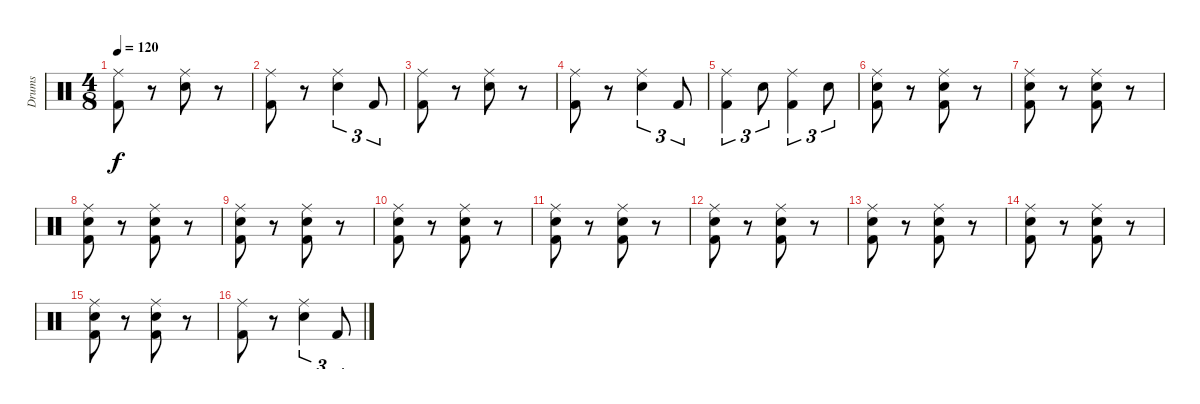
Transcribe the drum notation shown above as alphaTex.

\track ("Drums" "Drums") {instrument percussion}
\staff {score}
\articulation defaults
\ts (4 8)
\tempo 120
\clef neutral
\ks c
("Ride (middle)" "Kick (hit) 2").8{dy f} r.8 ("Ride (middle)" "Electric Snare (hit)").8 r.8 |
("Ride (middle)" "Kick (hit) 2").8 r.8 ("Ride (middle)" "Electric Snare (hit)").4{tu (3 2)} "Kick (hit) 2".8{tu (3 2)} |
("Ride (middle)" "Kick (hit) 2").8 r.8 ("Ride (middle)" "Electric Snare (hit)").8 r.8 |
("Ride (middle)" "Kick (hit) 2").8 r.8 ("Ride (middle)" "Electric Snare (hit)").4{tu (3 2)} "Kick (hit) 2".8{tu (3 2)} |
("Ride (middle)" "Kick (hit) 2").4{tu (3 2)} "Electric Snare (hit)".8{tu (3 2)} ("Ride (middle)" "Kick (hit) 2").4{tu (3 2)} "Electric Snare (hit)".8{tu (3 2)} |
("Ride (middle)" "Electric Snare (hit)" "Kick (hit) 2").8 r.8 ("Ride (middle)" "Electric Snare (hit)" "Kick (hit) 2").8 r.8 |
("Ride (middle)" "Electric Snare (hit)" "Kick (hit) 2").8 r.8 ("Ride (middle)" "Electric Snare (hit)" "Kick (hit) 2").8 r.8 |
("Ride (middle)" "Electric Snare (hit)" "Kick (hit) 2").8 r.8 ("Ride (middle)" "Electric Snare (hit)" "Kick (hit) 2").8 r.8 |
("Ride (middle)" "Electric Snare (hit)" "Kick (hit) 2").8 r.8 ("Ride (middle)" "Electric Snare (hit)" "Kick (hit) 2").8 r.8 |
("Ride (middle)" "Electric Snare (hit)" "Kick (hit) 2").8 r.8 ("Ride (middle)" "Electric Snare (hit)" "Kick (hit) 2").8 r.8 |
("Ride (middle)" "Electric Snare (hit)" "Kick (hit) 2").8 r.8 ("Ride (middle)" "Electric Snare (hit)" "Kick (hit) 2").8 r.8 |
("Ride (middle)" "Electric Snare (hit)" "Kick (hit) 2").8 r.8 ("Ride (middle)" "Electric Snare (hit)" "Kick (hit) 2").8 r.8 |
("Ride (middle)" "Electric Snare (hit)" "Kick (hit) 2").8 r.8 ("Ride (middle)" "Electric Snare (hit)" "Kick (hit) 2").8 r.8 |
("Ride (middle)" "Electric Snare (hit)" "Kick (hit) 2").8 r.8 ("Ride (middle)" "Electric Snare (hit)" "Kick (hit) 2").8 r.8 |
("Ride (middle)" "Electric Snare (hit)" "Kick (hit) 2").8 r.8 ("Ride (middle)" "Electric Snare (hit)" "Kick (hit) 2").8 r.8 |
("Ride (middle)" "Kick (hit) 2").8 r.8 ("Ride (middle)" "Electric Snare (hit)").4{tu (3 2)} "Kick (hit) 2".8{tu (3 2)}
